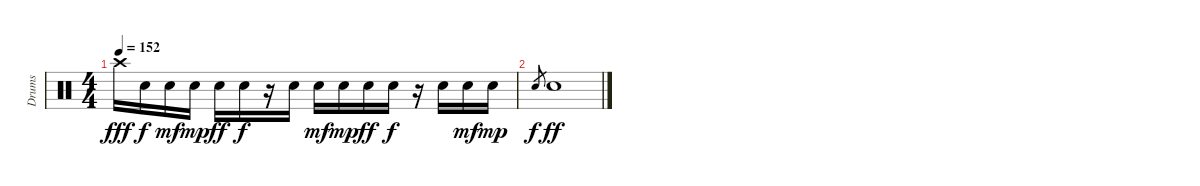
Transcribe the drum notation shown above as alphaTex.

\track ("Drums" "Drums") {instrument percussion}
\staff {score}
\articulation defaults
\ts (4 4)
\tempo 152
\clef neutral
\ks c "Crash high (hit)".16{dy fff} "Snare (hit) 2".16{dy f} "Snare (hit) 2".16{dy mf} "Snare (hit) 2".16{dy mp} "Snare (hit) 2".16{dy ff} "Snare (hit) 2".16{dy f}
r.16 "Snare (hit) 2".16 "Snare (hit) 2".16{dy mf} "Snare (hit) 2".16{dy mp} "Snare (hit) 2".16{dy ff} "Snare (hit) 2".16{dy f} r.16 "Snare (hit) 2".16 "Snare (hit) 2".16{dy mf} "Snare (hit) 2".16{dy mp} |
"Snare (hit) 2".8{gr dy f} "Snare (hit) 2".1{dy ff}
